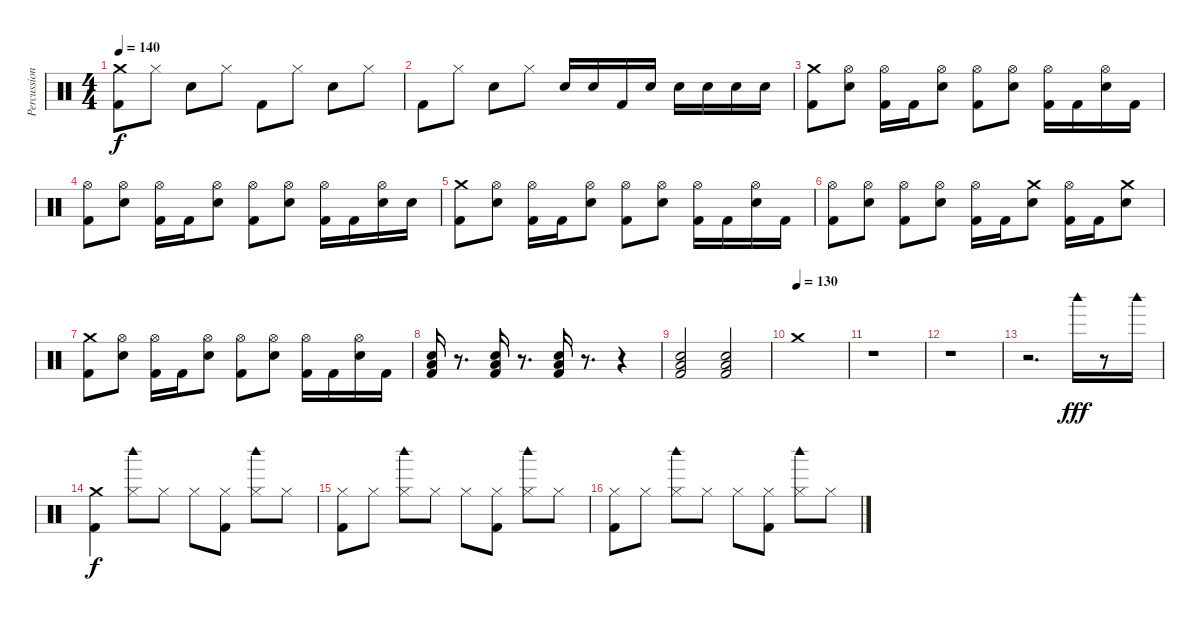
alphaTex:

\track ("Percussion" "Percussion") {instrument percussion}
\staff {score}
\articulation defaults
\ts (4 4)
\tempo 140
\clef neutral
\ks c
("Crash medium (hit)" "Kick (hit) 2").8{dy f} "Hi-Hat (closed)".8 "Electric Snare (hit)".8 "Hi-Hat (closed)".8 "Kick (hit) 2".8 "Hi-Hat (closed)".8 "Electric Snare (hit)".8 "Hi-Hat (closed)".8 |
"Kick (hit) 2".8 "Hi-Hat (closed)".8 "Electric Snare (hit)".8 "Hi-Hat (closed)".8 "Electric Snare (hit)".16 "Electric Snare (hit)".16 "Kick (hit) 2".16 "Electric Snare (hit)".16 "Electric Snare (hit)".16 "Electric Snare (hit)".16 "Electric Snare (hit)".16 "Electric Snare (hit)".16 |
("Crash medium (hit)" "Kick (hit) 2").8 ("Hi-Hat (open)" "Electric Snare (hit)").8 ("Hi-Hat (open)" "Kick (hit) 2").16 "Kick (hit) 2".16 ("Hi-Hat (open)" "Electric Snare (hit)").8 ("Hi-Hat (open)" "Kick (hit) 2").8 ("Hi-Hat (open)" "Electric Snare (hit)").8 ("Hi-Hat (open)" "Kick (hit) 2").16 "Kick (hit) 2".16 ("Hi-Hat (open)" "Electric Snare (hit)").16 "Kick (hit) 2".16 |
("Hi-Hat (open)" "Kick (hit) 2").8 ("Hi-Hat (open)" "Electric Snare (hit)").8 ("Hi-Hat (open)" "Kick (hit) 2").16 "Kick (hit) 2".16 ("Hi-Hat (open)" "Electric Snare (hit)").8 ("Hi-Hat (open)" "Kick (hit) 2").8 ("Hi-Hat (open)" "Electric Snare (hit)").8 ("Hi-Hat (open)" "Kick (hit) 2").16 "Kick (hit) 2".16 ("Hi-Hat (open)" "Electric Snare (hit)").16 "Electric Snare (hit)".16 |
("Crash medium (hit)" "Kick (hit) 2").8 ("Hi-Hat (open)" "Electric Snare (hit)").8 ("Hi-Hat (open)" "Kick (hit) 2").16 "Kick (hit) 2".16 ("Hi-Hat (open)" "Electric Snare (hit)").8 ("Hi-Hat (open)" "Kick (hit) 2").8 ("Hi-Hat (open)" "Electric Snare (hit)").8 ("Hi-Hat (open)" "Kick (hit) 2").16 "Kick (hit) 2".16 ("Hi-Hat (open)" "Electric Snare (hit)").16 "Kick (hit) 2".16 |
("Hi-Hat (open)" "Kick (hit) 2").8 ("Hi-Hat (open)" "Electric Snare (hit)").8 ("Hi-Hat (open)" "Kick (hit) 2").8 ("Hi-Hat (open)" "Electric Snare (hit)").8 ("Hi-Hat (open)" "Kick (hit) 2").16 "Kick (hit) 2".16 ("Crash medium (hit)" "Electric Snare (hit)").8 ("Hi-Hat (open)" "Kick (hit) 2").16 "Kick (hit) 2".16 ("Crash medium (hit)" "Electric Snare (hit)").8 |
("Crash medium (hit)" "Kick (hit) 2").8 ("Hi-Hat (open)" "Electric Snare (hit)").8 ("Hi-Hat (open)" "Kick (hit) 2").16 "Kick (hit) 2".16 ("Hi-Hat (open)" "Electric Snare (hit)").8 ("Hi-Hat (open)" "Kick (hit) 2").8 ("Hi-Hat (open)" "Electric Snare (hit)").8 ("Hi-Hat (open)" "Kick (hit) 2").16 "Kick (hit) 2".16 ("Hi-Hat (open)" "Electric Snare (hit)").16 "Kick (hit) 2".16 |
("Low Floor Tom (hit)" "Electric Snare (hit)" "Kick (hit) 2").16 r.8{d} ("Low Floor Tom (hit)" "Electric Snare (hit)" "Kick (hit) 2").16 r.8{d} ("Low Floor Tom (hit)" "Electric Snare (hit)" "Kick (hit) 2").16 r.8{d} r.4 |
("Low Floor Tom (hit)" "Electric Snare (hit)" "Kick (hit) 2").2 ("Low Floor Tom (hit)" "Electric Snare (hit)" "Kick (hit) 2").2 |
\tempo (130)
"Crash medium (hit)".1 |
r.1 |
r.1 |
r.2{d} "Woodblock high (hit)".16{dy fff} r.8 "Woodblock high (hit)".16 |
("Crash medium (hit)" "Kick (hit) 2").4{dy f} ("Hi-Hat (closed)" "Woodblock high (hit)").8 "Hi-Hat (closed)".8 "Hi-Hat (closed)".8 ("Hi-Hat (closed)" "Kick (hit) 2").8 ("Hi-Hat (closed)" "Woodblock high (hit)").8 "Hi-Hat (closed)".8 |
("Hi-Hat (closed)" "Kick (hit) 2").8 "Hi-Hat (closed)".8 ("Hi-Hat (closed)" "Woodblock high (hit)").8 "Hi-Hat (closed)".8 "Hi-Hat (closed)".8 ("Hi-Hat (closed)" "Kick (hit) 2").8 ("Hi-Hat (closed)" "Woodblock high (hit)").8 "Hi-Hat (closed)".8 |
("Hi-Hat (closed)" "Kick (hit) 2").8 "Hi-Hat (closed)".8 ("Hi-Hat (closed)" "Woodblock high (hit)").8 "Hi-Hat (closed)".8 "Hi-Hat (closed)".8 ("Hi-Hat (closed)" "Kick (hit) 2").8 ("Hi-Hat (closed)" "Woodblock high (hit)").8 "Hi-Hat (closed)".8
